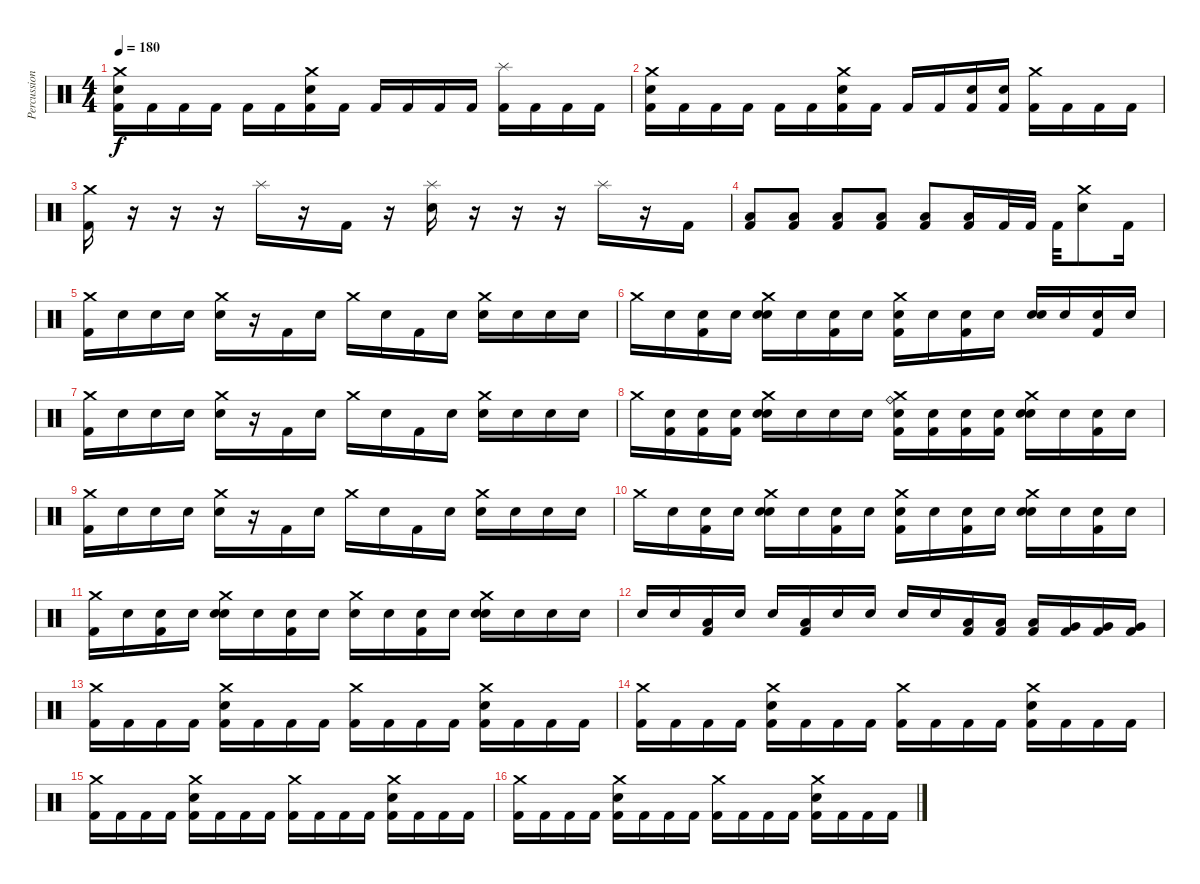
\track ("Percussion" "Percussion") {instrument percussion}
\staff {score}
\articulation defaults
\ts (4 4)
\tempo 180
\clef neutral
\ks c
("Crash medium (hit)" "Kick (hit) 2" "Snare (hit) 2").16{dy f} "Kick (hit) 2".16 "Kick (hit) 2".16 "Kick (hit) 2".16 "Kick (hit) 2".16 "Kick (hit) 2".16 ("Crash medium (hit)" "Snare (hit) 2" "Kick (hit) 2").16 "Kick (hit) 2".16 "Kick (hit) 2".16 "Kick (hit) 2".16 "Kick (hit) 2".16 "Kick (hit) 2".16 ("Splash (hit)" "Kick (hit) 2").16 "Kick (hit) 2".16 "Kick (hit) 2".16 "Kick (hit) 2".16 |
("Crash medium (hit)" "Kick (hit) 2" "Snare (hit) 2").16 "Kick (hit) 2".16 "Kick (hit) 2".16 "Kick (hit) 2".16 "Kick (hit) 2".16 "Kick (hit) 2".16 ("Crash medium (hit)" "Snare (hit) 2" "Kick (hit) 2").16 "Kick (hit) 2".16 "Kick (hit) 2".16 "Kick (hit) 2".16 ("Snare (hit) 2" "Kick (hit) 2").16 ("Snare (hit) 2" "Kick (hit) 2").16 ("Crash medium (hit)" "Kick (hit) 2").16 "Kick (hit) 2".16 "Kick (hit) 2".16 "Kick (hit) 2".16 |
("Kick (hit) 2" "Crash medium (hit)").16 r.16 r.16 r.16 "Splash (hit)".16 r.16 "Kick (hit) 2".16 r.16 ("Snare (hit) 2" "Splash (hit)").16 r.16 r.16 r.16 "Splash (hit)".16 r.16 "Kick (hit) 2".16 |
("Low Floor Tom (hit)" "Kick (hit) 2").8 ("Low Floor Tom (hit)" "Kick (hit) 2").8 ("Low Floor Tom (hit)" "Kick (hit) 2").8 ("Low Floor Tom (hit)" "Kick (hit) 2").8 ("Low Floor Tom (hit)" "Kick (hit) 2").8 ("Low Floor Tom (hit)" "Kick (hit) 2").16 "Kick (hit) 2".32 "Kick (hit) 2".32 "Kick (hit) 2".32 ("Snare (hit) 2" "Crash medium (hit)").8 "Kick (hit) 2".16 |
("Kick (hit) 2" "Crash medium (hit)").16 "Snare (hit)".16 "Snare (hit)".16 "Snare (hit)".16 ("Snare (hit) 2" "Crash medium (hit)").16 r.16 "Kick (hit) 2".16 "Snare (hit)".16 "Crash medium (hit)".16 "Snare (hit)".16 "Kick (hit) 2".16 "Snare (hit)".16 ("Snare (hit) 2" "Crash medium (hit)").16 "Snare (hit)".16 "Snare (hit)".16 "Snare (hit)".16 |
"Crash medium (hit)".16 "Snare (hit)".16 ("Snare (hit)" "Kick (hit) 2").16 "Snare (hit)".16 ("Snare (hit)" "Snare (hit) 2" "Crash medium (hit)").16 "Snare (hit)".16 ("Snare (hit)" "Kick (hit) 2").16 "Snare (hit)".16 ("Snare (hit)" "Kick (hit) 2" "Crash medium (hit)").16 "Snare (hit)".16 ("Snare (hit)" "Kick (hit) 2").16 "Snare (hit)".16 ("Snare (hit)" "Snare (hit) 2").16 "Snare (hit)".16 ("Snare (hit)" "Kick (hit) 2").16 "Snare (hit)".16 |
("Kick (hit) 2" "Crash medium (hit)").16 "Snare (hit)".16 "Snare (hit)".16 "Snare (hit)".16 ("Snare (hit) 2" "Crash medium (hit)").16 r.16 "Kick (hit) 2".16 "Snare (hit)".16 "Crash medium (hit)".16 "Snare (hit)".16 "Kick (hit) 2".16 "Snare (hit)".16 ("Snare (hit) 2" "Crash medium (hit)").16 "Snare (hit)".16 "Snare (hit)".16 "Snare (hit)".16 |
"Crash medium (hit)".16 ("Snare (hit)" "Kick (hit) 2").16 ("Snare (hit)" "Kick (hit) 2").16 ("Snare (hit)" "Kick (hit) 2").16 ("Snare (hit)" "Snare (hit) 2" "Crash medium (hit)").16 "Snare (hit)".16 "Snare (hit)".16 "Snare (hit)".16 ("Snare (hit)" "Kick (hit) 2" "Crash medium (hit)" "Ride (bell)").16 ("Snare (hit)" "Kick (hit) 2").16 ("Snare (hit)" "Kick (hit) 2").16 ("Snare (hit)" "Kick (hit) 2").16 ("Snare (hit)" "Snare (hit) 2" "Crash medium (hit)").16 "Snare (hit)".16 ("Snare (hit)" "Kick (hit) 2").16 "Snare (hit)".16 |
("Kick (hit) 2" "Crash medium (hit)").16 "Snare (hit)".16 "Snare (hit)".16 "Snare (hit)".16 ("Snare (hit) 2" "Crash medium (hit)").16 r.16 "Kick (hit) 2".16 "Snare (hit)".16 "Crash medium (hit)".16 "Snare (hit)".16 "Kick (hit) 2".16 "Snare (hit)".16 ("Snare (hit) 2" "Crash medium (hit)").16 "Snare (hit)".16 "Snare (hit)".16 "Snare (hit)".16 |
"Crash medium (hit)".16 "Snare (hit)".16 ("Snare (hit)" "Kick (hit) 2").16 "Snare (hit)".16 ("Snare (hit)" "Snare (hit) 2" "Crash medium (hit)").16 "Snare (hit)".16 ("Snare (hit)" "Kick (hit) 2").16 "Snare (hit)".16 ("Snare (hit)" "Kick (hit) 2" "Crash medium (hit)").16 "Snare (hit)".16 ("Snare (hit)" "Kick (hit) 2").16 "Snare (hit)".16 ("Snare (hit)" "Snare (hit) 2" "Crash medium (hit)").16 "Snare (hit)".16 ("Snare (hit)" "Kick (hit) 2").16 "Snare (hit)".16 |
("Crash medium (hit)" "Kick (hit) 2").16 "Snare (hit)".16 ("Snare (hit)" "Kick (hit) 2").16 "Snare (hit)".16 ("Snare (hit)" "Snare (hit) 2" "Crash medium (hit)").16 "Snare (hit)".16 ("Snare (hit)" "Kick (hit) 2").16 "Snare (hit)".16 ("Snare (hit)" "Crash medium (hit)").16 "Snare (hit)".16 ("Snare (hit)" "Kick (hit) 2").16 "Snare (hit)".16 ("Snare (hit)" "Snare (hit) 2" "Crash medium (hit)").16 "Snare (hit)".16 "Snare (hit)".16 "Snare (hit)".16 |
"Snare (hit) 2".16 "Snare (hit) 2".16 ("Low Tom (hit)" "Kick (hit) 2").16 "Snare (hit) 2".16 "Snare (hit) 2".16 ("Low Tom (hit)" "Kick (hit) 2").16 "Snare (hit) 2".16 "Snare (hit) 2".16 "Snare (hit) 2".16 "Snare (hit) 2".16 ("Low Tom (hit)" "Kick (hit) 2").16 ("Low Tom (hit)" "Kick (hit) 2").16 ("Low Tom (hit)" "Kick (hit) 2").16 ("Very Low Tom (hit)" "Kick (hit) 2").16 ("Very Low Tom (hit)" "Kick (hit) 2").16 ("Very Low Tom (hit)" "Kick (hit) 2").16 |
("Kick (hit) 2" "Crash medium (hit)").16 "Kick (hit) 2".16 "Kick (hit) 2".16 "Kick (hit) 2".16 ("Kick (hit) 2" "Crash medium (hit)" "Snare (hit) 2").16 "Kick (hit) 2".16 "Kick (hit) 2".16 "Kick (hit) 2".16 ("Kick (hit) 2" "Crash medium (hit)").16 "Kick (hit) 2".16 "Kick (hit) 2".16 "Kick (hit) 2".16 ("Kick (hit) 2" "Crash medium (hit)" "Snare (hit) 2").16 "Kick (hit) 2".16 "Kick (hit) 2".16 "Kick (hit) 2".16 |
("Kick (hit) 2" "Crash medium (hit)").16 "Kick (hit) 2".16 "Kick (hit) 2".16 "Kick (hit) 2".16 ("Kick (hit) 2" "Crash medium (hit)" "Snare (hit) 2").16 "Kick (hit) 2".16 "Kick (hit) 2".16 "Kick (hit) 2".16 ("Kick (hit) 2" "Crash medium (hit)").16 "Kick (hit) 2".16 "Kick (hit) 2".16 "Kick (hit) 2".16 ("Kick (hit) 2" "Crash medium (hit)" "Snare (hit) 2").16 "Kick (hit) 2".16 "Kick (hit) 2".16 "Kick (hit) 2".16 |
("Kick (hit) 2" "Crash medium (hit)").16 "Kick (hit) 2".16 "Kick (hit) 2".16 "Kick (hit) 2".16 ("Kick (hit) 2" "Crash medium (hit)" "Snare (hit) 2").16 "Kick (hit) 2".16 "Kick (hit) 2".16 "Kick (hit) 2".16 ("Kick (hit) 2" "Crash medium (hit)").16 "Kick (hit) 2".16 "Kick (hit) 2".16 "Kick (hit) 2".16 ("Kick (hit) 2" "Crash medium (hit)" "Snare (hit) 2").16 "Kick (hit) 2".16 "Kick (hit) 2".16 "Kick (hit) 2".16 |
("Kick (hit) 2" "Crash medium (hit)").16 "Kick (hit) 2".16 "Kick (hit) 2".16 "Kick (hit) 2".16 ("Kick (hit) 2" "Crash medium (hit)" "Snare (hit) 2").16 "Kick (hit) 2".16 "Kick (hit) 2".16 "Kick (hit) 2".16 ("Kick (hit) 2" "Crash medium (hit)").16 "Kick (hit) 2".16 "Kick (hit) 2".16 "Kick (hit) 2".16 ("Kick (hit) 2" "Crash medium (hit)" "Snare (hit) 2").16 "Kick (hit) 2".16 "Kick (hit) 2".16 "Kick (hit) 2".16
